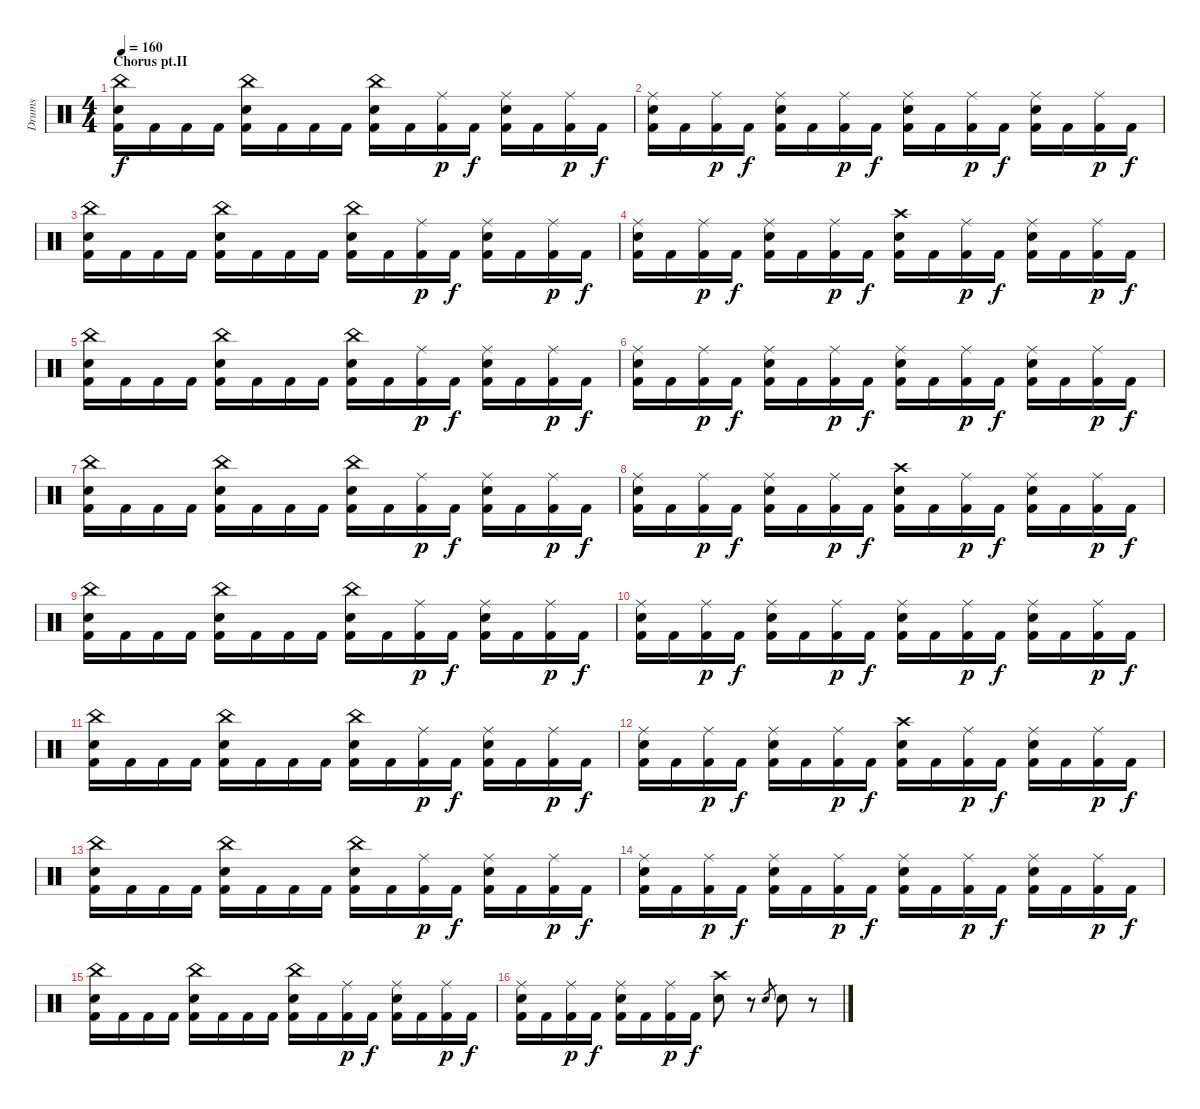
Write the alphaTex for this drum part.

\track ("Drums" "Drums") {instrument percussion}
\staff {score}
\articulation defaults
\ts (4 4)
\section ("" "Chorus pt.II")
\tempo 160
\clef neutral
\ks c
("China (hit)" "Snare (hit) 2" "Kick (hit) 2").16{dy f} "Kick (hit) 2".16 "Kick (hit) 2".16 "Kick (hit) 2".16 ("China (hit)" "Snare (hit) 2" "Kick (hit) 2").16 "Kick (hit) 2".16 "Kick (hit) 2".16 "Kick (hit) 2".16 ("China (hit)" "Snare (hit) 2" "Kick (hit) 2").16 "Kick (hit) 2".16 ("Ride (middle)" "Kick (hit) 2").16{dy p} "Kick (hit) 2".16{dy f} ("Ride (middle)" "Snare (hit) 2" "Kick (hit) 2").16 "Kick (hit) 2".16 ("Ride (middle)" "Kick (hit) 2").16{dy p} "Kick (hit) 2".16{dy f} |
("Ride (middle)" "Snare (hit) 2" "Kick (hit) 2").16 "Kick (hit) 2".16 ("Ride (middle)" "Kick (hit) 2").16{dy p} "Kick (hit) 2".16{dy f} ("Ride (middle)" "Snare (hit) 2" "Kick (hit) 2").16 "Kick (hit) 2".16 ("Ride (middle)" "Kick (hit) 2").16{dy p} "Kick (hit) 2".16{dy f} ("Ride (middle)" "Snare (hit) 2" "Kick (hit) 2").16 "Kick (hit) 2".16 ("Ride (middle)" "Kick (hit) 2").16{dy p} "Kick (hit) 2".16{dy f} ("Ride (middle)" "Snare (hit) 2" "Kick (hit) 2").16 "Kick (hit) 2".16 ("Ride (middle)" "Kick (hit) 2").16{dy p} "Kick (hit) 2".16{dy f} |
("China (hit)" "Snare (hit) 2" "Kick (hit) 2").16 "Kick (hit) 2".16 "Kick (hit) 2".16 "Kick (hit) 2".16 ("China (hit)" "Snare (hit) 2" "Kick (hit) 2").16 "Kick (hit) 2".16 "Kick (hit) 2".16 "Kick (hit) 2".16 ("China (hit)" "Snare (hit) 2" "Kick (hit) 2").16 "Kick (hit) 2".16 ("Ride (middle)" "Kick (hit) 2").16{dy p} "Kick (hit) 2".16{dy f} ("Ride (middle)" "Snare (hit) 2" "Kick (hit) 2").16 "Kick (hit) 2".16 ("Ride (middle)" "Kick (hit) 2").16{dy p} "Kick (hit) 2".16{dy f} |
("Ride (middle)" "Snare (hit) 2" "Kick (hit) 2").16 "Kick (hit) 2".16 ("Ride (middle)" "Kick (hit) 2").16{dy p} "Kick (hit) 2".16{dy f} ("Ride (middle)" "Snare (hit) 2" "Kick (hit) 2").16 "Kick (hit) 2".16 ("Ride (middle)" "Kick (hit) 2").16{dy p} "Kick (hit) 2".16{dy f} ("Crash high (hit)" "Snare (hit) 2" "Kick (hit) 2").16 "Kick (hit) 2".16 ("Ride (middle)" "Kick (hit) 2").16{dy p} "Kick (hit) 2".16{dy f} ("Ride (middle)" "Snare (hit) 2" "Kick (hit) 2").16 "Kick (hit) 2".16 ("Ride (middle)" "Kick (hit) 2").16{dy p} "Kick (hit) 2".16{dy f} |
("China (hit)" "Snare (hit) 2" "Kick (hit) 2").16 "Kick (hit) 2".16 "Kick (hit) 2".16 "Kick (hit) 2".16 ("China (hit)" "Snare (hit) 2" "Kick (hit) 2").16 "Kick (hit) 2".16 "Kick (hit) 2".16 "Kick (hit) 2".16 ("China (hit)" "Snare (hit) 2" "Kick (hit) 2").16 "Kick (hit) 2".16 ("Ride (middle)" "Kick (hit) 2").16{dy p} "Kick (hit) 2".16{dy f} ("Ride (middle)" "Snare (hit) 2" "Kick (hit) 2").16 "Kick (hit) 2".16 ("Ride (middle)" "Kick (hit) 2").16{dy p} "Kick (hit) 2".16{dy f} |
("Ride (middle)" "Snare (hit) 2" "Kick (hit) 2").16 "Kick (hit) 2".16 ("Ride (middle)" "Kick (hit) 2").16{dy p} "Kick (hit) 2".16{dy f} ("Ride (middle)" "Snare (hit) 2" "Kick (hit) 2").16 "Kick (hit) 2".16 ("Ride (middle)" "Kick (hit) 2").16{dy p} "Kick (hit) 2".16{dy f} ("Ride (middle)" "Snare (hit) 2" "Kick (hit) 2").16 "Kick (hit) 2".16 ("Ride (middle)" "Kick (hit) 2").16{dy p} "Kick (hit) 2".16{dy f} ("Ride (middle)" "Snare (hit) 2" "Kick (hit) 2").16 "Kick (hit) 2".16 ("Ride (middle)" "Kick (hit) 2").16{dy p} "Kick (hit) 2".16{dy f} |
("China (hit)" "Snare (hit) 2" "Kick (hit) 2").16 "Kick (hit) 2".16 "Kick (hit) 2".16 "Kick (hit) 2".16 ("China (hit)" "Snare (hit) 2" "Kick (hit) 2").16 "Kick (hit) 2".16 "Kick (hit) 2".16 "Kick (hit) 2".16 ("China (hit)" "Snare (hit) 2" "Kick (hit) 2").16 "Kick (hit) 2".16 ("Ride (middle)" "Kick (hit) 2").16{dy p} "Kick (hit) 2".16{dy f} ("Ride (middle)" "Snare (hit) 2" "Kick (hit) 2").16 "Kick (hit) 2".16 ("Ride (middle)" "Kick (hit) 2").16{dy p} "Kick (hit) 2".16{dy f} |
("Ride (middle)" "Snare (hit) 2" "Kick (hit) 2").16 "Kick (hit) 2".16 ("Ride (middle)" "Kick (hit) 2").16{dy p} "Kick (hit) 2".16{dy f} ("Ride (middle)" "Snare (hit) 2" "Kick (hit) 2").16 "Kick (hit) 2".16 ("Ride (middle)" "Kick (hit) 2").16{dy p} "Kick (hit) 2".16{dy f} ("Crash high (hit)" "Snare (hit) 2" "Kick (hit) 2").16 "Kick (hit) 2".16 ("Ride (middle)" "Kick (hit) 2").16{dy p} "Kick (hit) 2".16{dy f} ("Ride (middle)" "Snare (hit) 2" "Kick (hit) 2").16 "Kick (hit) 2".16 ("Ride (middle)" "Kick (hit) 2").16{dy p} "Kick (hit) 2".16{dy f} |
("China (hit)" "Snare (hit) 2" "Kick (hit) 2").16 "Kick (hit) 2".16 "Kick (hit) 2".16 "Kick (hit) 2".16 ("China (hit)" "Snare (hit) 2" "Kick (hit) 2").16 "Kick (hit) 2".16 "Kick (hit) 2".16 "Kick (hit) 2".16 ("China (hit)" "Snare (hit) 2" "Kick (hit) 2").16 "Kick (hit) 2".16 ("Ride (middle)" "Kick (hit) 2").16{dy p} "Kick (hit) 2".16{dy f} ("Ride (middle)" "Snare (hit) 2" "Kick (hit) 2").16 "Kick (hit) 2".16 ("Ride (middle)" "Kick (hit) 2").16{dy p} "Kick (hit) 2".16{dy f} |
("Ride (middle)" "Snare (hit) 2" "Kick (hit) 2").16 "Kick (hit) 2".16 ("Ride (middle)" "Kick (hit) 2").16{dy p} "Kick (hit) 2".16{dy f} ("Ride (middle)" "Snare (hit) 2" "Kick (hit) 2").16 "Kick (hit) 2".16 ("Ride (middle)" "Kick (hit) 2").16{dy p} "Kick (hit) 2".16{dy f} ("Ride (middle)" "Snare (hit) 2" "Kick (hit) 2").16 "Kick (hit) 2".16 ("Ride (middle)" "Kick (hit) 2").16{dy p} "Kick (hit) 2".16{dy f} ("Ride (middle)" "Snare (hit) 2" "Kick (hit) 2").16 "Kick (hit) 2".16 ("Ride (middle)" "Kick (hit) 2").16{dy p} "Kick (hit) 2".16{dy f} |
("China (hit)" "Snare (hit) 2" "Kick (hit) 2").16 "Kick (hit) 2".16 "Kick (hit) 2".16 "Kick (hit) 2".16 ("China (hit)" "Snare (hit) 2" "Kick (hit) 2").16 "Kick (hit) 2".16 "Kick (hit) 2".16 "Kick (hit) 2".16 ("China (hit)" "Snare (hit) 2" "Kick (hit) 2").16 "Kick (hit) 2".16 ("Ride (middle)" "Kick (hit) 2").16{dy p} "Kick (hit) 2".16{dy f} ("Ride (middle)" "Snare (hit) 2" "Kick (hit) 2").16 "Kick (hit) 2".16 ("Ride (middle)" "Kick (hit) 2").16{dy p} "Kick (hit) 2".16{dy f} |
("Ride (middle)" "Snare (hit) 2" "Kick (hit) 2").16 "Kick (hit) 2".16 ("Ride (middle)" "Kick (hit) 2").16{dy p} "Kick (hit) 2".16{dy f} ("Ride (middle)" "Snare (hit) 2" "Kick (hit) 2").16 "Kick (hit) 2".16 ("Ride (middle)" "Kick (hit) 2").16{dy p} "Kick (hit) 2".16{dy f} ("Crash high (hit)" "Snare (hit) 2" "Kick (hit) 2").16 "Kick (hit) 2".16 ("Ride (middle)" "Kick (hit) 2").16{dy p} "Kick (hit) 2".16{dy f} ("Ride (middle)" "Snare (hit) 2" "Kick (hit) 2").16 "Kick (hit) 2".16 ("Ride (middle)" "Kick (hit) 2").16{dy p} "Kick (hit) 2".16{dy f} |
("China (hit)" "Snare (hit) 2" "Kick (hit) 2").16 "Kick (hit) 2".16 "Kick (hit) 2".16 "Kick (hit) 2".16 ("China (hit)" "Snare (hit) 2" "Kick (hit) 2").16 "Kick (hit) 2".16 "Kick (hit) 2".16 "Kick (hit) 2".16 ("China (hit)" "Snare (hit) 2" "Kick (hit) 2").16 "Kick (hit) 2".16 ("Ride (middle)" "Kick (hit) 2").16{dy p} "Kick (hit) 2".16{dy f} ("Ride (middle)" "Snare (hit) 2" "Kick (hit) 2").16 "Kick (hit) 2".16 ("Ride (middle)" "Kick (hit) 2").16{dy p} "Kick (hit) 2".16{dy f} |
("Ride (middle)" "Snare (hit) 2" "Kick (hit) 2").16 "Kick (hit) 2".16 ("Ride (middle)" "Kick (hit) 2").16{dy p} "Kick (hit) 2".16{dy f} ("Ride (middle)" "Snare (hit) 2" "Kick (hit) 2").16 "Kick (hit) 2".16 ("Ride (middle)" "Kick (hit) 2").16{dy p} "Kick (hit) 2".16{dy f} ("Ride (middle)" "Snare (hit) 2" "Kick (hit) 2").16 "Kick (hit) 2".16 ("Ride (middle)" "Kick (hit) 2").16{dy p} "Kick (hit) 2".16{dy f} ("Ride (middle)" "Snare (hit) 2" "Kick (hit) 2").16 "Kick (hit) 2".16 ("Ride (middle)" "Kick (hit) 2").16{dy p} "Kick (hit) 2".16{dy f} |
("China (hit)" "Snare (hit) 2" "Kick (hit) 2").16 "Kick (hit) 2".16 "Kick (hit) 2".16 "Kick (hit) 2".16 ("China (hit)" "Snare (hit) 2" "Kick (hit) 2").16 "Kick (hit) 2".16 "Kick (hit) 2".16 "Kick (hit) 2".16 ("China (hit)" "Snare (hit) 2" "Kick (hit) 2").16 "Kick (hit) 2".16 ("Ride (middle)" "Kick (hit) 2").16{dy p} "Kick (hit) 2".16{dy f} ("Ride (middle)" "Snare (hit) 2" "Kick (hit) 2").16 "Kick (hit) 2".16 ("Ride (middle)" "Kick (hit) 2").16{dy p} "Kick (hit) 2".16{dy f} |
("Ride (middle)" "Snare (hit) 2" "Kick (hit) 2").16 "Kick (hit) 2".16 ("Ride (middle)" "Kick (hit) 2").16{dy p} "Kick (hit) 2".16{dy f} ("Ride (middle)" "Snare (hit) 2" "Kick (hit) 2").16 "Kick (hit) 2".16 ("Ride (middle)" "Kick (hit) 2").16{dy p} "Kick (hit) 2".16{dy f} ("Crash high (hit)" "Snare (hit) 2").8 r.8 "Snare (hit) 2".8{gr} "Snare (hit) 2".8 r.8
